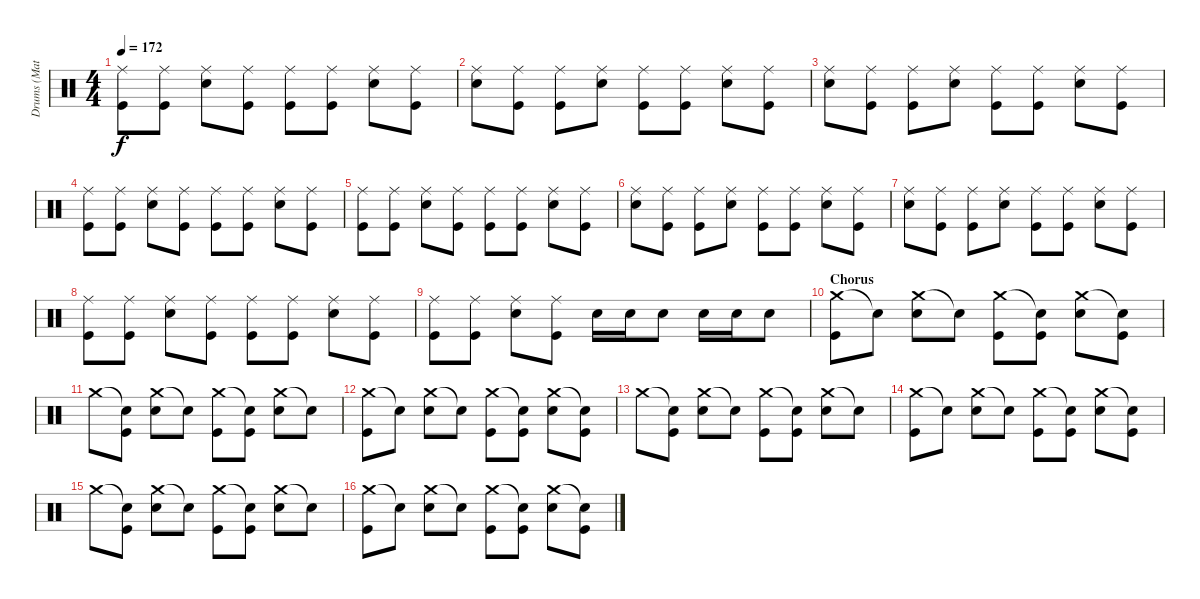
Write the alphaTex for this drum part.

\track ("Drums (Matt)" "Drums (Mat") {instrument percussion}
\staff {score}
\articulation defaults
\ts (4 4)
\tempo 172
\clef neutral
\ks c
("Ride (middle)" "Kick (hit)").8{dy f} ("Ride (middle)" "Kick (hit)").8 ("Ride (middle)" "Electric Snare (hit)").8 ("Ride (middle)" "Kick (hit)").8 ("Ride (middle)" "Kick (hit)").8 ("Ride (middle)" "Kick (hit)").8 ("Ride (middle)" "Electric Snare (hit)").8 ("Ride (middle)" "Kick (hit)").8 |
("Ride (middle)" "Electric Snare (hit)").8 ("Ride (middle)" "Kick (hit)").8 ("Ride (middle)" "Kick (hit)").8 ("Ride (middle)" "Electric Snare (hit)").8 ("Ride (middle)" "Kick (hit)").8 ("Ride (middle)" "Kick (hit)").8 ("Ride (middle)" "Electric Snare (hit)").8 ("Ride (middle)" "Kick (hit)").8 |
("Ride (middle)" "Electric Snare (hit)").8 ("Ride (middle)" "Kick (hit)").8 ("Ride (middle)" "Kick (hit)").8 ("Ride (middle)" "Electric Snare (hit)").8 ("Ride (middle)" "Kick (hit)").8 ("Ride (middle)" "Kick (hit)").8 ("Ride (middle)" "Electric Snare (hit)").8 ("Ride (middle)" "Kick (hit)").8 |
("Ride (middle)" "Kick (hit)").8 ("Ride (middle)" "Kick (hit)").8 ("Ride (middle)" "Electric Snare (hit)").8 ("Ride (middle)" "Kick (hit)").8 ("Ride (middle)" "Kick (hit)").8 ("Ride (middle)" "Kick (hit)").8 ("Ride (middle)" "Electric Snare (hit)").8 ("Ride (middle)" "Kick (hit)").8 |
("Ride (middle)" "Kick (hit)").8 ("Ride (middle)" "Kick (hit)").8 ("Ride (middle)" "Electric Snare (hit)").8 ("Ride (middle)" "Kick (hit)").8 ("Ride (middle)" "Kick (hit)").8 ("Ride (middle)" "Kick (hit)").8 ("Ride (middle)" "Electric Snare (hit)").8 ("Ride (middle)" "Kick (hit)").8 |
("Ride (middle)" "Electric Snare (hit)").8 ("Ride (middle)" "Kick (hit)").8 ("Ride (middle)" "Kick (hit)").8 ("Ride (middle)" "Electric Snare (hit)").8 ("Ride (middle)" "Kick (hit)").8 ("Ride (middle)" "Kick (hit)").8 ("Ride (middle)" "Electric Snare (hit)").8 ("Ride (middle)" "Kick (hit)").8 |
("Ride (middle)" "Electric Snare (hit)").8 ("Ride (middle)" "Kick (hit)").8 ("Ride (middle)" "Kick (hit)").8 ("Ride (middle)" "Electric Snare (hit)").8 ("Ride (middle)" "Kick (hit)").8 ("Ride (middle)" "Kick (hit)").8 ("Ride (middle)" "Electric Snare (hit)").8 ("Ride (middle)" "Kick (hit)").8 |
("Ride (middle)" "Kick (hit)").8 ("Ride (middle)" "Kick (hit)").8 ("Ride (middle)" "Electric Snare (hit)").8 ("Ride (middle)" "Kick (hit)").8 ("Ride (middle)" "Kick (hit)").8 ("Ride (middle)" "Kick (hit)").8 ("Ride (middle)" "Electric Snare (hit)").8 ("Ride (middle)" "Kick (hit)").8 |
("Ride (middle)" "Kick (hit)").8 ("Ride (middle)" "Kick (hit)").8 ("Ride (middle)" "Electric Snare (hit)").8 ("Ride (middle)" "Kick (hit)").8 "Electric Snare (hit)".16 "Electric Snare (hit)".16 "Electric Snare (hit)".8 "Electric Snare (hit)".16 "Electric Snare (hit)".16 "Electric Snare (hit)".8 |
\section ("" "Chorus")
("Crash medium (hit)" "Kick (hit)").8 "Snare (hit)"{t}.8 ("Crash medium (hit)" "Electric Snare (hit)").8 "Snare (hit)"{t}.8 ("Crash medium (hit)" "Kick (hit)").8 ("Snare (hit)"{t} "Kick (hit)").8 ("Crash medium (hit)" "Electric Snare (hit)").8 ("Snare (hit)"{t} "Kick (hit)").8 |
"Crash medium (hit)".8 ("Snare (hit)"{t} "Kick (hit)").8 ("Crash medium (hit)" "Electric Snare (hit)").8 "Snare (hit)"{t}.8 ("Crash medium (hit)" "Kick (hit)").8 ("Snare (hit)"{t} "Kick (hit)").8 ("Crash medium (hit)" "Electric Snare (hit)").8 "Snare (hit)"{t}.8 |
("Crash medium (hit)" "Kick (hit)").8 "Snare (hit)"{t}.8 ("Crash medium (hit)" "Electric Snare (hit)").8 "Snare (hit)"{t}.8 ("Crash medium (hit)" "Kick (hit)").8 ("Snare (hit)"{t} "Kick (hit)").8 ("Crash medium (hit)" "Electric Snare (hit)").8 ("Snare (hit)"{t} "Kick (hit)").8 |
"Crash medium (hit)".8 ("Snare (hit)"{t} "Kick (hit)").8 ("Crash medium (hit)" "Electric Snare (hit)").8 "Snare (hit)"{t}.8 ("Crash medium (hit)" "Kick (hit)").8 ("Snare (hit)"{t} "Kick (hit)").8 ("Crash medium (hit)" "Electric Snare (hit)").8 "Snare (hit)"{t}.8 |
("Crash medium (hit)" "Kick (hit)").8 "Snare (hit)"{t}.8 ("Crash medium (hit)" "Electric Snare (hit)").8 "Snare (hit)"{t}.8 ("Crash medium (hit)" "Kick (hit)").8 ("Snare (hit)"{t} "Kick (hit)").8 ("Crash medium (hit)" "Electric Snare (hit)").8 ("Snare (hit)"{t} "Kick (hit)").8 |
"Crash medium (hit)".8 ("Snare (hit)"{t} "Kick (hit)").8 ("Crash medium (hit)" "Electric Snare (hit)").8 "Snare (hit)"{t}.8 ("Crash medium (hit)" "Kick (hit)").8 ("Snare (hit)"{t} "Kick (hit)").8 ("Crash medium (hit)" "Electric Snare (hit)").8 "Snare (hit)"{t}.8 |
("Crash medium (hit)" "Kick (hit)").8 "Snare (hit)"{t}.8 ("Crash medium (hit)" "Electric Snare (hit)").8 "Snare (hit)"{t}.8 ("Crash medium (hit)" "Kick (hit)").8 ("Snare (hit)"{t} "Kick (hit)").8 ("Crash medium (hit)" "Electric Snare (hit)").8 ("Snare (hit)"{t} "Kick (hit)").8
